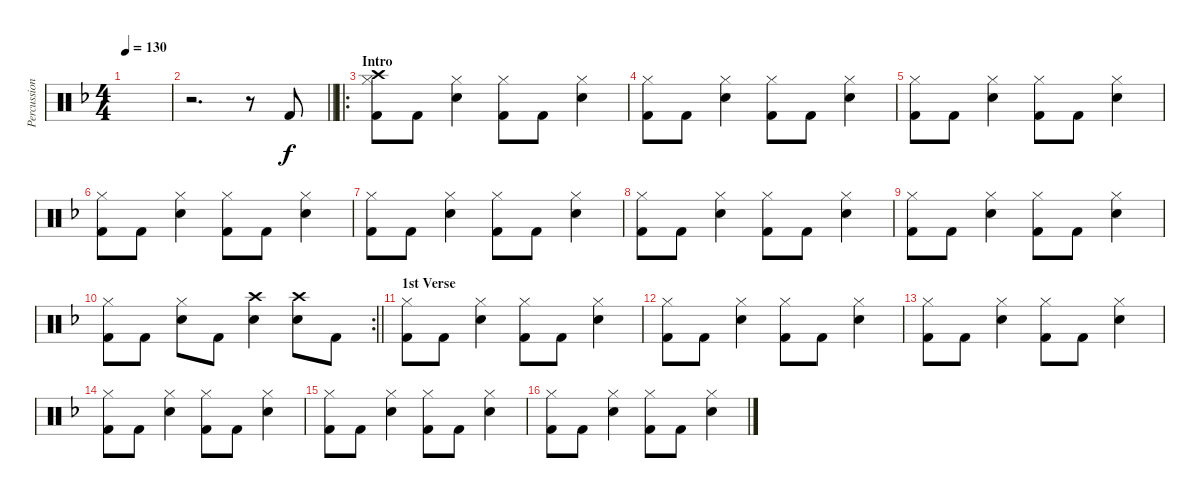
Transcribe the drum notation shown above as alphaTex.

\track ("Percussion" "Percussion") {instrument percussion}
\staff {score}
\articulation defaults
\ts (4 4)
\tempo 130
\clef neutral
\ks dminor
|
\barLineRight lightlight
r.2{d} r.8 "Kick (hit) 2".8 |
\ro
\section ("" "Intro")
("Crash high (hit)" "Hi-Hat (closed)" "Kick (hit) 2").8 "Kick (hit) 2".8 ("Hi-Hat (closed)" "Snare (hit) 2").4 ("Hi-Hat (closed)" "Kick (hit) 2").8 "Kick (hit) 2".8 ("Hi-Hat (closed)" "Snare (hit) 2").4 |
("Hi-Hat (closed)" "Kick (hit) 2").8 "Kick (hit) 2".8 ("Hi-Hat (closed)" "Snare (hit) 2").4 ("Hi-Hat (closed)" "Kick (hit) 2").8 "Kick (hit) 2".8 ("Hi-Hat (closed)" "Snare (hit) 2").4 |
("Hi-Hat (closed)" "Kick (hit) 2").8 "Kick (hit) 2".8 ("Hi-Hat (closed)" "Snare (hit) 2").4 ("Hi-Hat (closed)" "Kick (hit) 2").8 "Kick (hit) 2".8 ("Hi-Hat (closed)" "Snare (hit) 2").4 |
("Hi-Hat (closed)" "Kick (hit) 2").8 "Kick (hit) 2".8 ("Hi-Hat (closed)" "Snare (hit) 2").4 ("Hi-Hat (closed)" "Kick (hit) 2").8 "Kick (hit) 2".8 ("Hi-Hat (closed)" "Snare (hit) 2").4 |
("Hi-Hat (closed)" "Kick (hit) 2").8 "Kick (hit) 2".8 ("Hi-Hat (closed)" "Snare (hit) 2").4 ("Hi-Hat (closed)" "Kick (hit) 2").8 "Kick (hit) 2".8 ("Hi-Hat (closed)" "Snare (hit) 2").4 |
("Hi-Hat (closed)" "Kick (hit) 2").8 "Kick (hit) 2".8 ("Hi-Hat (closed)" "Snare (hit) 2").4 ("Hi-Hat (closed)" "Kick (hit) 2").8 "Kick (hit) 2".8 ("Hi-Hat (closed)" "Snare (hit) 2").4 |
("Hi-Hat (closed)" "Kick (hit) 2").8 "Kick (hit) 2".8 ("Hi-Hat (closed)" "Snare (hit) 2").4 ("Hi-Hat (closed)" "Kick (hit) 2").8 "Kick (hit) 2".8 ("Hi-Hat (closed)" "Snare (hit) 2").4 |
\rc 2
\barLineRight lightlight
("Hi-Hat (closed)" "Kick (hit) 2").8 "Kick (hit) 2".8 ("Hi-Hat (closed)" "Snare (hit) 2").8 "Kick (hit) 2".8 ("Crash high (hit)" "Snare (hit) 2").4 ("Crash high (hit)" "Snare (hit) 2").8 "Kick (hit) 2".8 |
\section ("" "1st Verse")
("Hi-Hat (closed)" "Kick (hit) 2").8 "Kick (hit) 2".8 ("Hi-Hat (closed)" "Snare (hit) 2").4 ("Hi-Hat (closed)" "Kick (hit) 2").8 "Kick (hit) 2".8 ("Hi-Hat (closed)" "Snare (hit) 2").4 |
("Hi-Hat (closed)" "Kick (hit) 2").8 "Kick (hit) 2".8 ("Hi-Hat (closed)" "Snare (hit) 2").4 ("Hi-Hat (closed)" "Kick (hit) 2").8 "Kick (hit) 2".8 ("Hi-Hat (closed)" "Snare (hit) 2").4 |
("Hi-Hat (closed)" "Kick (hit) 2").8 "Kick (hit) 2".8 ("Hi-Hat (closed)" "Snare (hit) 2").4 ("Hi-Hat (closed)" "Kick (hit) 2").8 "Kick (hit) 2".8 ("Hi-Hat (closed)" "Snare (hit) 2").4 |
("Hi-Hat (closed)" "Kick (hit) 2").8 "Kick (hit) 2".8 ("Hi-Hat (closed)" "Snare (hit) 2").4 ("Hi-Hat (closed)" "Kick (hit) 2").8 "Kick (hit) 2".8 ("Hi-Hat (closed)" "Snare (hit) 2").4 |
("Hi-Hat (closed)" "Kick (hit) 2").8 "Kick (hit) 2".8 ("Hi-Hat (closed)" "Snare (hit) 2").4 ("Hi-Hat (closed)" "Kick (hit) 2").8 "Kick (hit) 2".8 ("Hi-Hat (closed)" "Snare (hit) 2").4 |
("Hi-Hat (closed)" "Kick (hit) 2").8 "Kick (hit) 2".8 ("Hi-Hat (closed)" "Snare (hit) 2").4 ("Hi-Hat (closed)" "Kick (hit) 2").8 "Kick (hit) 2".8 ("Hi-Hat (closed)" "Snare (hit) 2").4
